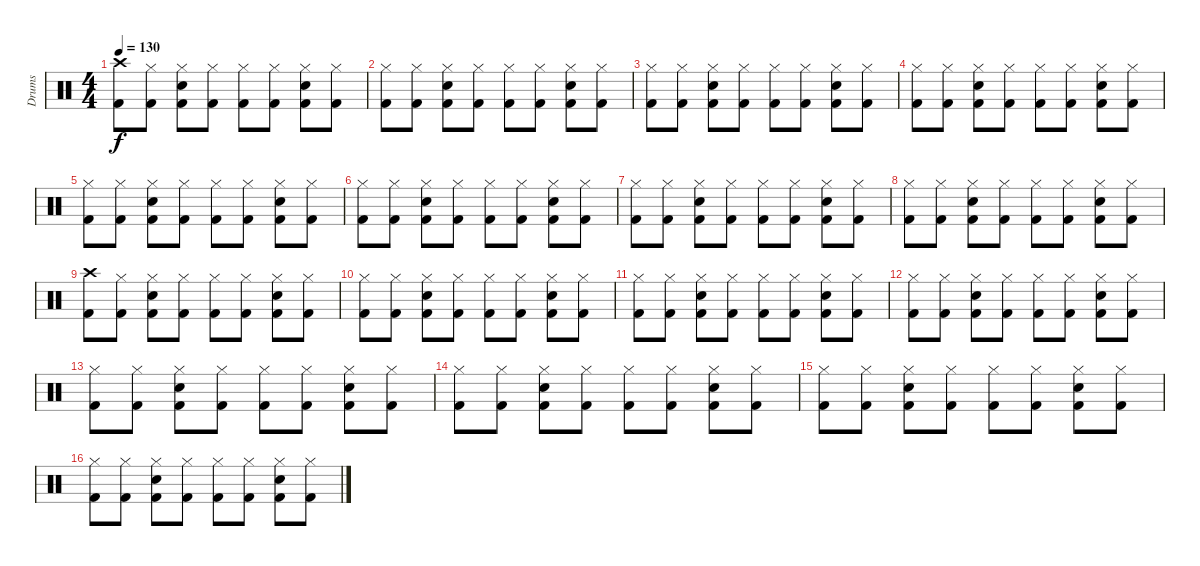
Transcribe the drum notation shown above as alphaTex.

\track ("Drums" "Drums") {instrument percussion}
\staff {score}
\articulation defaults
\ts (4 4)
\tempo 130
\clef neutral
\ks c
("Crash high (hit)" "Kick (hit) 2").8{dy f} ("Hi-Hat (closed)" "Kick (hit) 2").8 ("Hi-Hat (closed)" "Snare (hit) 2" "Kick (hit) 2").8 ("Hi-Hat (closed)" "Kick (hit) 2").8 ("Hi-Hat (closed)" "Kick (hit) 2").8 ("Hi-Hat (closed)" "Kick (hit) 2").8 ("Hi-Hat (closed)" "Snare (hit) 2" "Kick (hit) 2").8 ("Hi-Hat (closed)" "Kick (hit) 2").8 |
("Hi-Hat (closed)" "Kick (hit) 2").8 ("Hi-Hat (closed)" "Kick (hit) 2").8 ("Hi-Hat (closed)" "Snare (hit) 2" "Kick (hit) 2").8 ("Hi-Hat (closed)" "Kick (hit) 2").8 ("Hi-Hat (closed)" "Kick (hit) 2").8 ("Hi-Hat (closed)" "Kick (hit) 2").8 ("Hi-Hat (closed)" "Snare (hit) 2" "Kick (hit) 2").8 ("Hi-Hat (closed)" "Kick (hit) 2").8 |
("Hi-Hat (closed)" "Kick (hit) 2").8 ("Hi-Hat (closed)" "Kick (hit) 2").8 ("Hi-Hat (closed)" "Snare (hit) 2" "Kick (hit) 2").8 ("Hi-Hat (closed)" "Kick (hit) 2").8 ("Hi-Hat (closed)" "Kick (hit) 2").8 ("Hi-Hat (closed)" "Kick (hit) 2").8 ("Hi-Hat (closed)" "Snare (hit) 2" "Kick (hit) 2").8 ("Hi-Hat (closed)" "Kick (hit) 2").8 |
("Hi-Hat (closed)" "Kick (hit) 2").8 ("Hi-Hat (closed)" "Kick (hit) 2").8 ("Hi-Hat (closed)" "Snare (hit) 2" "Kick (hit) 2").8 ("Hi-Hat (closed)" "Kick (hit) 2").8 ("Hi-Hat (closed)" "Kick (hit) 2").8 ("Hi-Hat (closed)" "Kick (hit) 2").8 ("Hi-Hat (closed)" "Snare (hit) 2" "Kick (hit) 2").8 ("Hi-Hat (closed)" "Kick (hit) 2").8 |
("Hi-Hat (closed)" "Kick (hit) 2").8 ("Hi-Hat (closed)" "Kick (hit) 2").8 ("Hi-Hat (closed)" "Snare (hit) 2" "Kick (hit) 2").8 ("Hi-Hat (closed)" "Kick (hit) 2").8 ("Hi-Hat (closed)" "Kick (hit) 2").8 ("Hi-Hat (closed)" "Kick (hit) 2").8 ("Hi-Hat (closed)" "Snare (hit) 2" "Kick (hit) 2").8 ("Hi-Hat (closed)" "Kick (hit) 2").8 |
("Hi-Hat (closed)" "Kick (hit) 2").8 ("Hi-Hat (closed)" "Kick (hit) 2").8 ("Hi-Hat (closed)" "Snare (hit) 2" "Kick (hit) 2").8 ("Hi-Hat (closed)" "Kick (hit) 2").8 ("Hi-Hat (closed)" "Kick (hit) 2").8 ("Hi-Hat (closed)" "Kick (hit) 2").8 ("Hi-Hat (closed)" "Snare (hit) 2" "Kick (hit) 2").8 ("Hi-Hat (closed)" "Kick (hit) 2").8 |
("Hi-Hat (closed)" "Kick (hit) 2").8 ("Hi-Hat (closed)" "Kick (hit) 2").8 ("Hi-Hat (closed)" "Snare (hit) 2" "Kick (hit) 2").8 ("Hi-Hat (closed)" "Kick (hit) 2").8 ("Hi-Hat (closed)" "Kick (hit) 2").8 ("Hi-Hat (closed)" "Kick (hit) 2").8 ("Hi-Hat (closed)" "Snare (hit) 2" "Kick (hit) 2").8 ("Hi-Hat (closed)" "Kick (hit) 2").8 |
("Hi-Hat (closed)" "Kick (hit) 2").8 ("Hi-Hat (closed)" "Kick (hit) 2").8 ("Hi-Hat (closed)" "Snare (hit) 2" "Kick (hit) 2").8 ("Hi-Hat (closed)" "Kick (hit) 2").8 ("Hi-Hat (closed)" "Kick (hit) 2").8 ("Hi-Hat (closed)" "Kick (hit) 2").8 ("Hi-Hat (closed)" "Snare (hit) 2" "Kick (hit) 2").8 ("Hi-Hat (closed)" "Kick (hit) 2").8 |
("Crash high (hit)" "Kick (hit) 2").8 ("Hi-Hat (closed)" "Kick (hit) 2").8 ("Hi-Hat (closed)" "Snare (hit) 2" "Kick (hit) 2").8 ("Hi-Hat (closed)" "Kick (hit) 2").8 ("Hi-Hat (closed)" "Kick (hit) 2").8 ("Hi-Hat (closed)" "Kick (hit) 2").8 ("Hi-Hat (closed)" "Snare (hit) 2" "Kick (hit) 2").8 ("Hi-Hat (closed)" "Kick (hit) 2").8 |
("Hi-Hat (closed)" "Kick (hit) 2").8 ("Hi-Hat (closed)" "Kick (hit) 2").8 ("Hi-Hat (closed)" "Snare (hit) 2" "Kick (hit) 2").8 ("Hi-Hat (closed)" "Kick (hit) 2").8 ("Hi-Hat (closed)" "Kick (hit) 2").8 ("Hi-Hat (closed)" "Kick (hit) 2").8 ("Hi-Hat (closed)" "Snare (hit) 2" "Kick (hit) 2").8 ("Hi-Hat (closed)" "Kick (hit) 2").8 |
("Hi-Hat (closed)" "Kick (hit) 2").8 ("Hi-Hat (closed)" "Kick (hit) 2").8 ("Hi-Hat (closed)" "Snare (hit) 2" "Kick (hit) 2").8 ("Hi-Hat (closed)" "Kick (hit) 2").8 ("Hi-Hat (closed)" "Kick (hit) 2").8 ("Hi-Hat (closed)" "Kick (hit) 2").8 ("Hi-Hat (closed)" "Snare (hit) 2" "Kick (hit) 2").8 ("Hi-Hat (closed)" "Kick (hit) 2").8 |
("Hi-Hat (closed)" "Kick (hit) 2").8 ("Hi-Hat (closed)" "Kick (hit) 2").8 ("Hi-Hat (closed)" "Snare (hit) 2" "Kick (hit) 2").8 ("Hi-Hat (closed)" "Kick (hit) 2").8 ("Hi-Hat (closed)" "Kick (hit) 2").8 ("Hi-Hat (closed)" "Kick (hit) 2").8 ("Hi-Hat (closed)" "Snare (hit) 2" "Kick (hit) 2").8 ("Hi-Hat (closed)" "Kick (hit) 2").8 |
("Hi-Hat (closed)" "Kick (hit) 2").8 ("Hi-Hat (closed)" "Kick (hit) 2").8 ("Hi-Hat (closed)" "Snare (hit) 2" "Kick (hit) 2").8 ("Hi-Hat (closed)" "Kick (hit) 2").8 ("Hi-Hat (closed)" "Kick (hit) 2").8 ("Hi-Hat (closed)" "Kick (hit) 2").8 ("Hi-Hat (closed)" "Snare (hit) 2" "Kick (hit) 2").8 ("Hi-Hat (closed)" "Kick (hit) 2").8 |
("Hi-Hat (closed)" "Kick (hit) 2").8 ("Hi-Hat (closed)" "Kick (hit) 2").8 ("Hi-Hat (closed)" "Snare (hit) 2" "Kick (hit) 2").8 ("Hi-Hat (closed)" "Kick (hit) 2").8 ("Hi-Hat (closed)" "Kick (hit) 2").8 ("Hi-Hat (closed)" "Kick (hit) 2").8 ("Hi-Hat (closed)" "Snare (hit) 2" "Kick (hit) 2").8 ("Hi-Hat (closed)" "Kick (hit) 2").8 |
("Hi-Hat (closed)" "Kick (hit) 2").8 ("Hi-Hat (closed)" "Kick (hit) 2").8 ("Hi-Hat (closed)" "Snare (hit) 2" "Kick (hit) 2").8 ("Hi-Hat (closed)" "Kick (hit) 2").8 ("Hi-Hat (closed)" "Kick (hit) 2").8 ("Hi-Hat (closed)" "Kick (hit) 2").8 ("Hi-Hat (closed)" "Snare (hit) 2" "Kick (hit) 2").8 ("Hi-Hat (closed)" "Kick (hit) 2").8 |
("Hi-Hat (closed)" "Kick (hit) 2").8 ("Hi-Hat (closed)" "Kick (hit) 2").8 ("Hi-Hat (closed)" "Snare (hit) 2" "Kick (hit) 2").8 ("Hi-Hat (closed)" "Kick (hit) 2").8 ("Hi-Hat (closed)" "Kick (hit) 2").8 ("Hi-Hat (closed)" "Kick (hit) 2").8 ("Hi-Hat (closed)" "Snare (hit) 2" "Kick (hit) 2").8 ("Hi-Hat (closed)" "Kick (hit) 2").8
